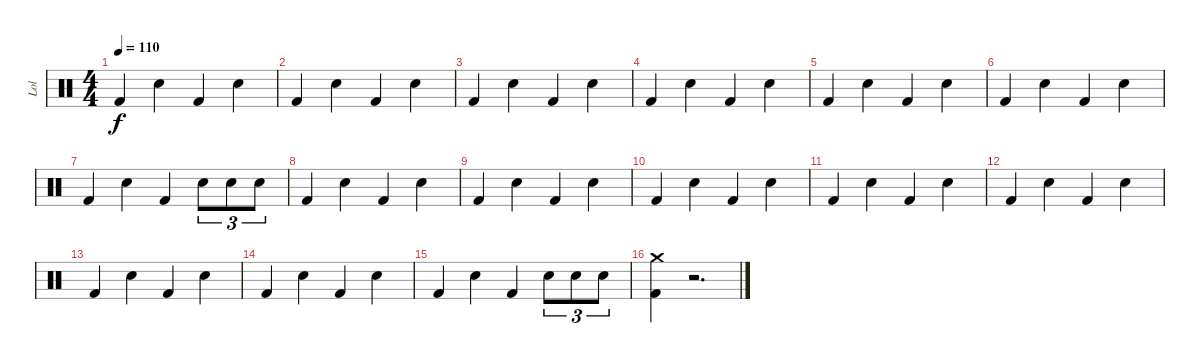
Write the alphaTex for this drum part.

\track ("Lol" "Lol") {instrument percussion}
\staff {score}
\articulation defaults
\ts (4 4)
\tempo 110
\clef neutral
\ks c "Kick (hit) 2".4{dy f} "Electric Snare (hit)".4 "Kick (hit) 2".4 "Electric Snare (hit)".4
|
"Kick (hit) 2".4 "Electric Snare (hit)".4 "Kick (hit) 2".4 "Electric Snare (hit)".4 |
"Kick (hit) 2".4 "Electric Snare (hit)".4 "Kick (hit) 2".4 "Electric Snare (hit)".4 |
"Kick (hit) 2".4 "Electric Snare (hit)".4 "Kick (hit) 2".4 "Electric Snare (hit)".4 |
"Kick (hit) 2".4 "Electric Snare (hit)".4 "Kick (hit) 2".4 "Electric Snare (hit)".4 |
"Kick (hit) 2".4 "Electric Snare (hit)".4 "Kick (hit) 2".4 "Electric Snare (hit)".4 |
"Kick (hit) 2".4 "Electric Snare (hit)".4 "Kick (hit) 2".4 "Electric Snare (hit)".8{tu (3 2)} "Electric Snare (hit)".8{tu (3 2)} "Electric Snare (hit)".8{tu (3 2)} |
"Kick (hit) 2".4 "Electric Snare (hit)".4 "Kick (hit) 2".4 "Electric Snare (hit)".4 |
"Kick (hit) 2".4 "Electric Snare (hit)".4 "Kick (hit) 2".4 "Electric Snare (hit)".4 |
"Kick (hit) 2".4 "Electric Snare (hit)".4 "Kick (hit) 2".4 "Electric Snare (hit)".4 |
"Kick (hit) 2".4 "Electric Snare (hit)".4 "Kick (hit) 2".4 "Electric Snare (hit)".4 |
"Kick (hit) 2".4 "Electric Snare (hit)".4 "Kick (hit) 2".4 "Electric Snare (hit)".4 |
"Kick (hit) 2".4 "Electric Snare (hit)".4 "Kick (hit) 2".4 "Electric Snare (hit)".4 |
"Kick (hit) 2".4 "Electric Snare (hit)".4 "Kick (hit) 2".4 "Electric Snare (hit)".4 |
"Kick (hit) 2".4 "Electric Snare (hit)".4 "Kick (hit) 2".4 "Electric Snare (hit)".8{tu (3 2)} "Electric Snare (hit)".8{tu (3 2)} "Electric Snare (hit)".8{tu (3 2)} |
("Kick (hit) 2" "Crash medium (hit)").4 r.2{d}
